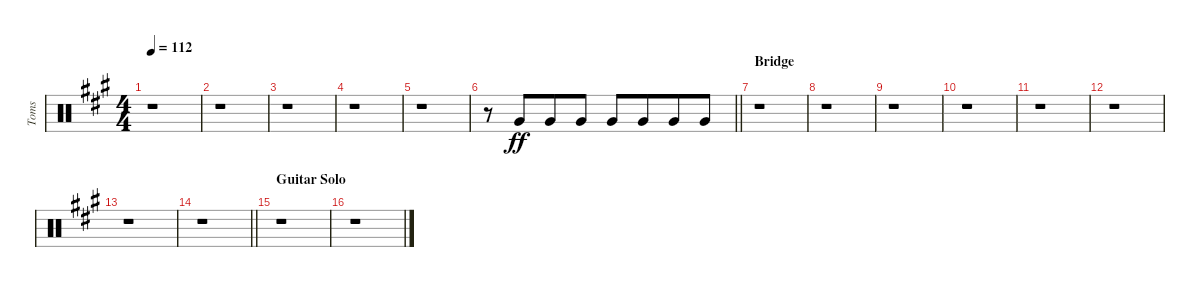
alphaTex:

\track ("Toms" "Toms") {instrument percussion}
\staff {score}
\articulation defaults
\ts (4 4)
\tempo 112
\clef neutral
\ks f#minor
r.1{dy ff} |
r.1 |
r.1 |
r.1 |
r.1 |
\barLineRight lightlight
r.8 "Very Low Tom (hit)".8{volume 2 beam merge} "Very Low Tom (hit)".8 "Very Low Tom (hit)".8 "Very Low Tom (hit)".8{volume 16} "Very Low Tom (hit)".8{beam merge} "Very Low Tom (hit)".8 "Very Low Tom (hit)".8 |
\section ("" "Bridge")
r.1 |
r.1 |
r.1 |
r.1 |
r.1 |
r.1 |
r.1 |
\barLineRight lightlight
r.1 |
\section ("" "Guitar Solo")
r.1 |
r.1
